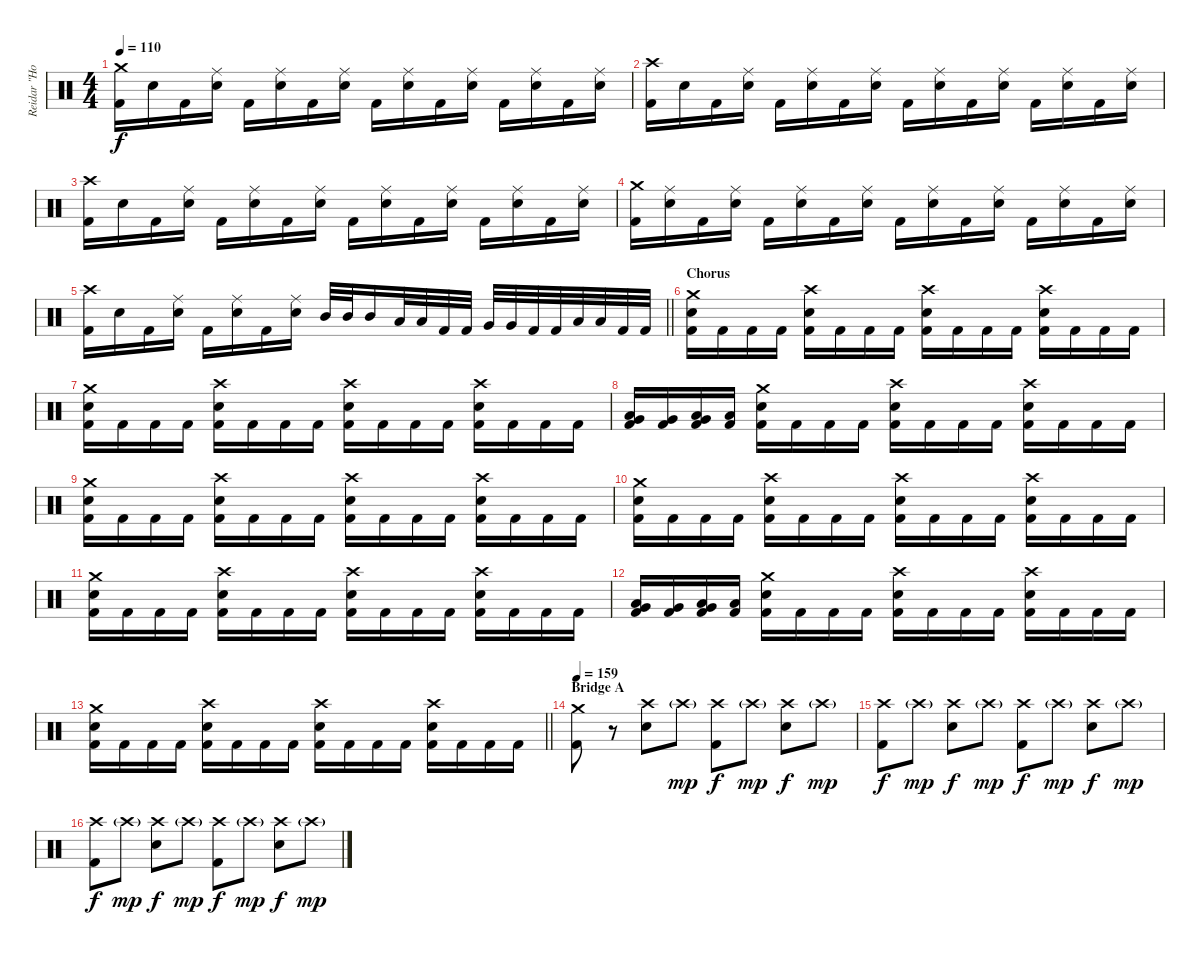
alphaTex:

\track ("Reidar \"Horgh\" Horghagen " "Reidar \"Ho") {instrument percussion}
\staff {score}
\articulation defaults
\ts (4 4)
\tempo 110
\clef neutral
\ks c
("Crash medium (hit)" "Kick (hit) 2").16{dy f} "Snare (hit) 2".16 "Kick (hit) 2".16 ("Ride (middle)" "Snare (hit) 2").16 "Kick (hit) 2".16 ("Ride (middle)" "Snare (hit) 2").16 "Kick (hit) 2".16 ("Ride (middle)" "Snare (hit) 2").16 "Kick (hit) 2".16 ("Ride (middle)" "Snare (hit) 2").16 "Kick (hit) 2".16 ("Ride (middle)" "Snare (hit) 2").16 "Kick (hit) 2".16 ("Ride (middle)" "Snare (hit) 2").16 "Kick (hit) 2".16 ("Ride (middle)" "Snare (hit) 2").16 |
("Crash high (hit)" "Kick (hit) 2").16 "Snare (hit) 2".16 "Kick (hit) 2".16 ("Ride (middle)" "Snare (hit) 2").16 "Kick (hit) 2".16 ("Ride (middle)" "Snare (hit) 2").16 "Kick (hit) 2".16 ("Ride (middle)" "Snare (hit) 2").16 "Kick (hit) 2".16 ("Ride (middle)" "Snare (hit) 2").16 "Kick (hit) 2".16 ("Ride (middle)" "Snare (hit) 2").16 "Kick (hit) 2".16 ("Ride (middle)" "Snare (hit) 2").16 "Kick (hit) 2".16 ("Ride (middle)" "Snare (hit) 2").16 |
("Crash high (hit)" "Kick (hit) 2").16 "Snare (hit) 2".16 "Kick (hit) 2".16 ("Ride (middle)" "Snare (hit) 2").16 "Kick (hit) 2".16 ("Ride (middle)" "Snare (hit) 2").16 "Kick (hit) 2".16 ("Ride (middle)" "Snare (hit) 2").16 "Kick (hit) 2".16 ("Ride (middle)" "Snare (hit) 2").16 "Kick (hit) 2".16 ("Ride (middle)" "Snare (hit) 2").16 "Kick (hit) 2".16 ("Ride (middle)" "Snare (hit) 2").16 "Kick (hit) 2".16 ("Ride (middle)" "Snare (hit) 2").16 |
("Crash medium (hit)" "Kick (hit) 2").16 ("Ride (middle)" "Snare (hit) 2").16 "Kick (hit) 2".16 ("Ride (middle)" "Snare (hit) 2").16 "Kick (hit) 2".16 ("Ride (middle)" "Snare (hit) 2").16 "Kick (hit) 2".16 ("Ride (middle)" "Snare (hit) 2").16 "Kick (hit) 2".16 ("Ride (middle)" "Snare (hit) 2").16 "Kick (hit) 2".16 ("Ride (middle)" "Snare (hit) 2").16 "Kick (hit) 2".16 ("Ride (middle)" "Snare (hit) 2").16 "Kick (hit) 2".16 ("Ride (middle)" "Snare (hit) 2").16 |
\barLineRight lightlight
("Crash high (hit)" "Kick (hit) 2").16 "Snare (hit) 2".16 "Kick (hit) 2".16 ("Ride (middle)" "Snare (hit) 2").16 "Kick (hit) 2".16 ("Ride (middle)" "Snare (hit) 2").16 "Kick (hit) 2".16 ("Ride (middle)" "Snare (hit) 2").16 "Mid Tom (hit)".32 "Mid Tom (hit)".32 "Mid Tom (hit)".16 "Low Tom (hit)".32 "Low Tom (hit)".32 "Kick (hit) 2".32 "Kick (hit) 2".32 "Very Low Tom (hit)".32 "Very Low Tom (hit)".32 "Kick (hit) 2".32 "Kick (hit) 2".32 "Low Floor Tom (hit)".32 "Low Floor Tom (hit)".32 "Kick (hit) 2".32 "Kick (hit) 2".32 |
\section ("" "Chorus")
("Crash medium (hit)" "Snare (hit) 2" "Kick (hit) 2").16 "Kick (hit) 2".16 "Kick (hit) 2".16 "Kick (hit) 2".16 ("Crash high (hit)" "Snare (hit) 2" "Kick (hit) 2").16 "Kick (hit) 2".16 "Kick (hit) 2".16 "Kick (hit) 2".16 ("Crash high (hit)" "Snare (hit) 2" "Kick (hit) 2").16 "Kick (hit) 2".16 "Kick (hit) 2".16 "Kick (hit) 2".16 ("Crash high (hit)" "Snare (hit) 2" "Kick (hit) 2").16 "Kick (hit) 2".16 "Kick (hit) 2".16 "Kick (hit) 2".16 |
("Crash medium (hit)" "Snare (hit) 2" "Kick (hit) 2").16 "Kick (hit) 2".16 "Kick (hit) 2".16 "Kick (hit) 2".16 ("Crash high (hit)" "Snare (hit) 2" "Kick (hit) 2").16 "Kick (hit) 2".16 "Kick (hit) 2".16 "Kick (hit) 2".16 ("Crash high (hit)" "Snare (hit) 2" "Kick (hit) 2").16 "Kick (hit) 2".16 "Kick (hit) 2".16 "Kick (hit) 2".16 ("Crash high (hit)" "Snare (hit) 2" "Kick (hit) 2").16 "Kick (hit) 2".16 "Kick (hit) 2".16 "Kick (hit) 2".16 |
("Low Tom (hit)" "Very Low Tom (hit)" "Kick (hit) 2").16 ("Very Low Tom (hit)" "Kick (hit) 2").16 ("Very Low Tom (hit)" "Low Floor Tom (hit)" "Kick (hit) 2").16 ("Low Floor Tom (hit)" "Kick (hit) 2").16 ("Crash medium (hit)" "Snare (hit) 2" "Kick (hit) 2").16 "Kick (hit) 2".16 "Kick (hit) 2".16 "Kick (hit) 2".16 ("Crash high (hit)" "Snare (hit) 2" "Kick (hit) 2").16 "Kick (hit) 2".16 "Kick (hit) 2".16 "Kick (hit) 2".16 ("Crash high (hit)" "Snare (hit) 2" "Kick (hit) 2").16 "Kick (hit) 2".16 "Kick (hit) 2".16 "Kick (hit) 2".16 |
("Crash medium (hit)" "Snare (hit) 2" "Kick (hit) 2").16 "Kick (hit) 2".16 "Kick (hit) 2".16 "Kick (hit) 2".16 ("Crash high (hit)" "Snare (hit) 2" "Kick (hit) 2").16 "Kick (hit) 2".16 "Kick (hit) 2".16 "Kick (hit) 2".16 ("Crash high (hit)" "Snare (hit) 2" "Kick (hit) 2").16 "Kick (hit) 2".16 "Kick (hit) 2".16 "Kick (hit) 2".16 ("Crash high (hit)" "Snare (hit) 2" "Kick (hit) 2").16 "Kick (hit) 2".16 "Kick (hit) 2".16 "Kick (hit) 2".16 |
("Crash medium (hit)" "Snare (hit) 2" "Kick (hit) 2").16 "Kick (hit) 2".16 "Kick (hit) 2".16 "Kick (hit) 2".16 ("Crash high (hit)" "Snare (hit) 2" "Kick (hit) 2").16 "Kick (hit) 2".16 "Kick (hit) 2".16 "Kick (hit) 2".16 ("Crash high (hit)" "Snare (hit) 2" "Kick (hit) 2").16 "Kick (hit) 2".16 "Kick (hit) 2".16 "Kick (hit) 2".16 ("Crash high (hit)" "Snare (hit) 2" "Kick (hit) 2").16 "Kick (hit) 2".16 "Kick (hit) 2".16 "Kick (hit) 2".16 |
("Crash medium (hit)" "Snare (hit) 2" "Kick (hit) 2").16 "Kick (hit) 2".16 "Kick (hit) 2".16 "Kick (hit) 2".16 ("Crash high (hit)" "Snare (hit) 2" "Kick (hit) 2").16 "Kick (hit) 2".16 "Kick (hit) 2".16 "Kick (hit) 2".16 ("Crash high (hit)" "Snare (hit) 2" "Kick (hit) 2").16 "Kick (hit) 2".16 "Kick (hit) 2".16 "Kick (hit) 2".16 ("Crash high (hit)" "Snare (hit) 2" "Kick (hit) 2").16 "Kick (hit) 2".16 "Kick (hit) 2".16 "Kick (hit) 2".16 |
("Low Tom (hit)" "Very Low Tom (hit)" "Kick (hit) 2").16 ("Very Low Tom (hit)" "Kick (hit) 2").16 ("Very Low Tom (hit)" "Low Floor Tom (hit)" "Kick (hit) 2").16 ("Low Floor Tom (hit)" "Kick (hit) 2").16 ("Crash medium (hit)" "Snare (hit) 2" "Kick (hit) 2").16 "Kick (hit) 2".16 "Kick (hit) 2".16 "Kick (hit) 2".16 ("Crash high (hit)" "Snare (hit) 2" "Kick (hit) 2").16 "Kick (hit) 2".16 "Kick (hit) 2".16 "Kick (hit) 2".16 ("Crash high (hit)" "Snare (hit) 2" "Kick (hit) 2").16 "Kick (hit) 2".16 "Kick (hit) 2".16 "Kick (hit) 2".16 |
\barLineRight lightlight
("Crash medium (hit)" "Snare (hit) 2" "Kick (hit) 2").16 "Kick (hit) 2".16 "Kick (hit) 2".16 "Kick (hit) 2".16 ("Crash high (hit)" "Snare (hit) 2" "Kick (hit) 2").16 "Kick (hit) 2".16 "Kick (hit) 2".16 "Kick (hit) 2".16 ("Crash high (hit)" "Snare (hit) 2" "Kick (hit) 2").16 "Kick (hit) 2".16 "Kick (hit) 2".16 "Kick (hit) 2".16 ("Crash high (hit)" "Snare (hit) 2" "Kick (hit) 2").16 "Kick (hit) 2".16 "Kick (hit) 2".16 "Kick (hit) 2".16 |
\section ("" "Bridge A")
\tempo 159
("Crash medium (hit)" "Kick (hit) 2").8 r.8 ("Crash high (hit)" "Snare (hit) 2").8 "Crash high (hit)"{g}.8{dy mp} ("Crash high (hit)" "Kick (hit) 2").8{dy f} "Crash high (hit)"{g}.8{dy mp} ("Crash high (hit)" "Snare (hit) 2").8{dy f} "Crash high (hit)"{g}.8{dy mp} |
("Crash high (hit)" "Kick (hit) 2").8{dy f} "Crash high (hit)"{g}.8{dy mp} ("Crash high (hit)" "Snare (hit) 2").8{dy f} "Crash high (hit)"{g}.8{dy mp} ("Crash high (hit)" "Kick (hit) 2").8{dy f} "Crash high (hit)"{g}.8{dy mp} ("Crash high (hit)" "Snare (hit) 2").8{dy f} "Crash high (hit)"{g}.8{dy mp} |
("Crash high (hit)" "Kick (hit) 2").8{dy f} "Crash high (hit)"{g}.8{dy mp} ("Crash high (hit)" "Snare (hit) 2").8{dy f} "Crash high (hit)"{g}.8{dy mp} ("Crash high (hit)" "Kick (hit) 2").8{dy f} "Crash high (hit)"{g}.8{dy mp} ("Crash high (hit)" "Snare (hit) 2").8{dy f} "Crash high (hit)"{g}.8{dy mp}
